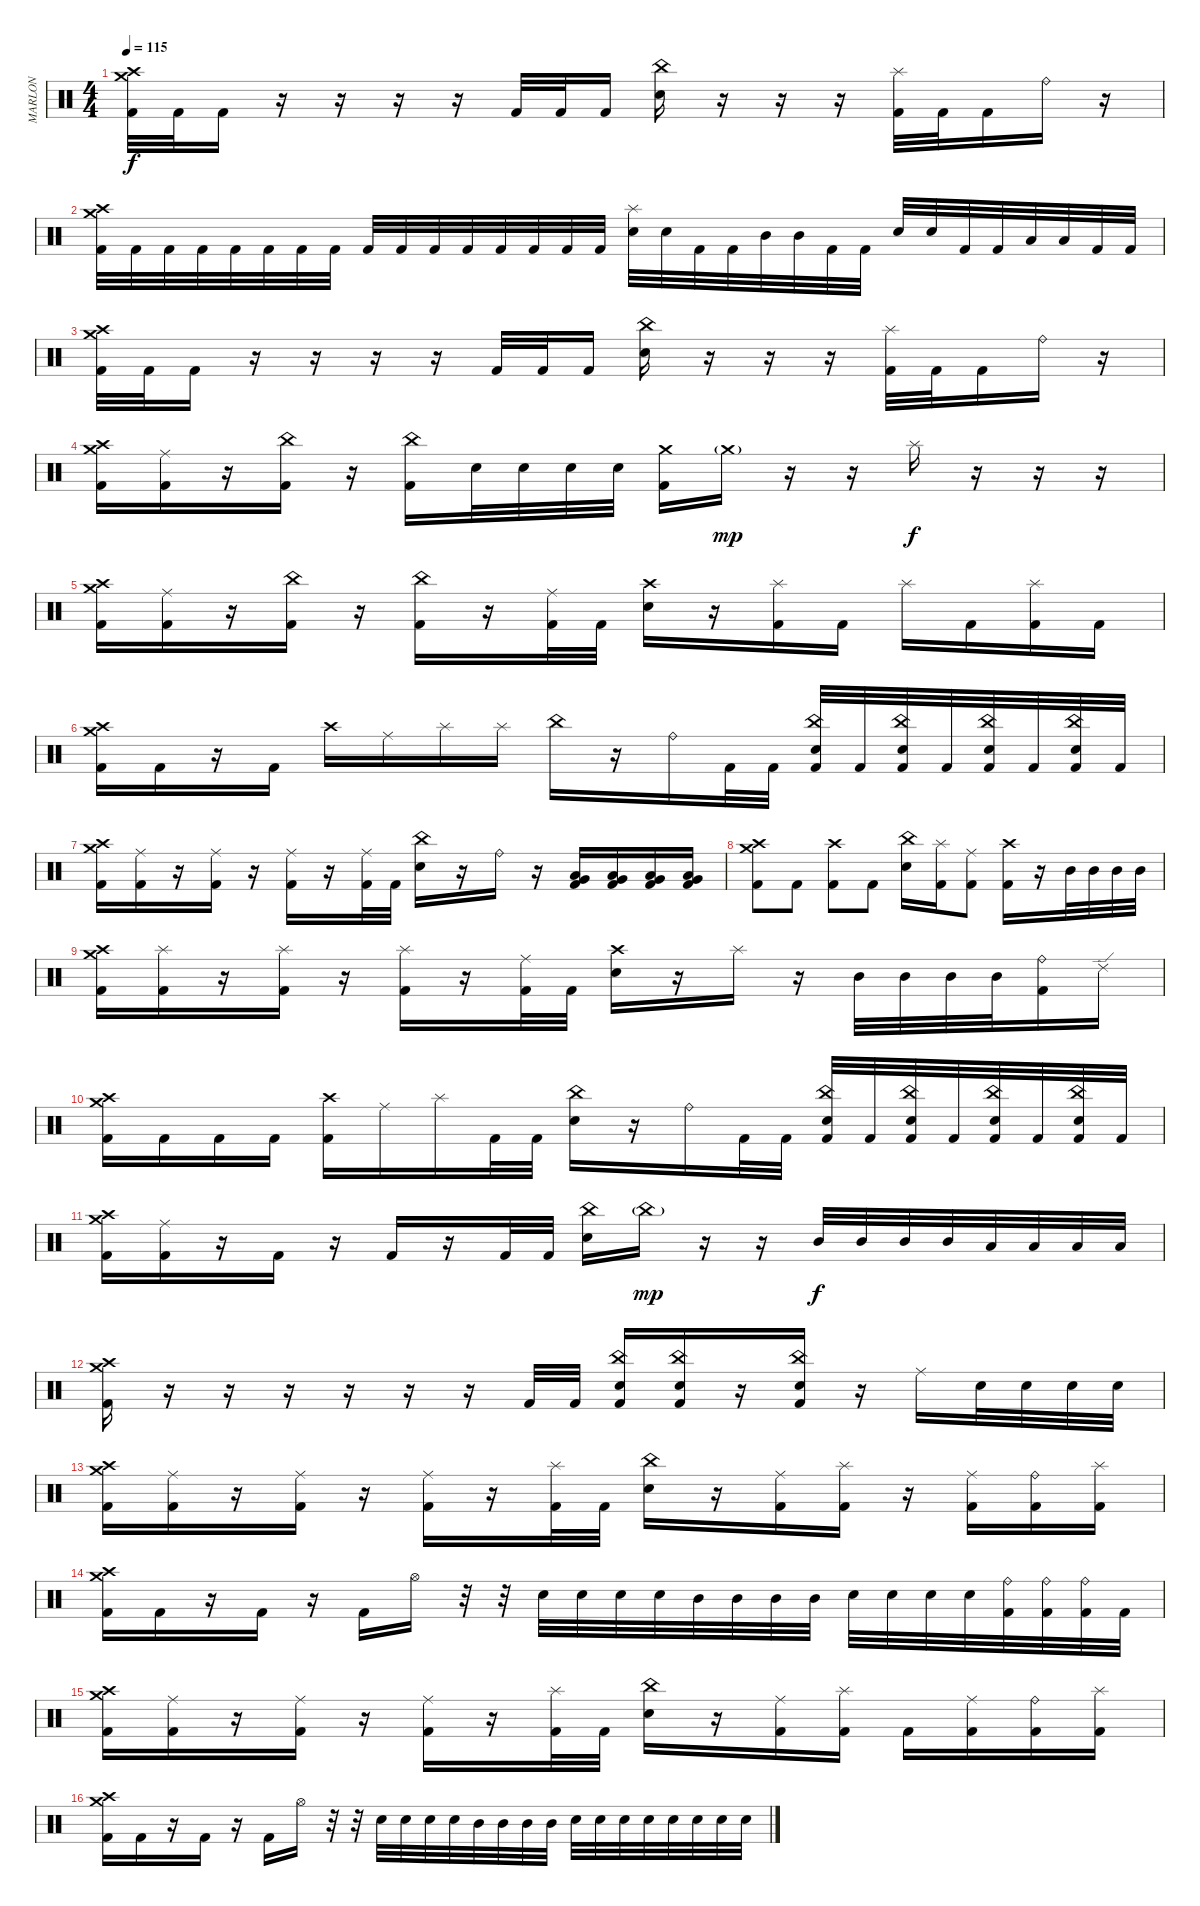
\track ("MARLON" "MARLON") {instrument percussion}
\staff {score}
\articulation defaults
\ts (4 4)
\tempo 115
\clef neutral
\ks c
("Crash high (hit)" "Crash medium (hit)" "Kick (hit) 2").32{dy f} "Kick (hit) 2".32 "Kick (hit) 2".16 r.16 r.16 r.16 r.16 "Kick (hit) 2".32 "Kick (hit) 2".32 "Kick (hit) 2".16 ("China (hit)" "Electric Snare (hit)").16 r.16 r.16 r.16 ("Splash (hit)" "Kick (hit) 2").32 "Kick (hit) 2".32 "Kick (hit) 2".16 "Ride (bell)".16 r.16 |
("Crash high (hit)" "Crash medium (hit)" "Kick (hit) 2").32 "Kick (hit) 2".32 "Kick (hit) 2".32 "Kick (hit) 2".32 "Kick (hit) 2".32 "Kick (hit) 2".32 "Kick (hit) 2".32 "Kick (hit) 2".32 "Kick (hit) 2".32 "Kick (hit) 2".32 "Kick (hit) 2".32 "Kick (hit) 2".32 "Kick (hit) 2".32 "Kick (hit) 2".32 "Kick (hit) 2".32 "Kick (hit) 2".32 ("Splash (hit)" "Electric Snare (hit)").32 "Electric Snare (hit)".32 "Kick (hit) 2".32 "Kick (hit) 2".32 "Mid Tom (hit)".32 "Mid Tom (hit)".32 "Kick (hit) 2".32 "Kick (hit) 2".32 "Electric Snare (hit)".32 "Electric Snare (hit)".32 "Kick (hit) 2".32 "Kick (hit) 2".32 "Low Tom (hit)".32 "Low Tom (hit)".32 "Kick (hit) 2".32 "Kick (hit) 2".32 |
("Crash high (hit)" "Crash medium (hit)" "Kick (hit) 2").32 "Kick (hit) 2".32 "Kick (hit) 2".16 r.16 r.16 r.16 r.16 "Kick (hit) 2".32 "Kick (hit) 2".32 "Kick (hit) 2".16 ("China (hit)" "Electric Snare (hit)").16 r.16 r.16 r.16 ("Splash (hit)" "Kick (hit) 2").32 "Kick (hit) 2".32 "Kick (hit) 2".16 "Ride (bell)".16 r.16 |
("Crash medium (hit)" "Crash high (hit)" "Kick (hit) 2").16 ("Ride (middle)" "Kick (hit) 2").16 r.16 ("China (hit)" "Kick (hit) 2").16 r.16 ("China (hit)" "Kick (hit) 2").16 "Electric Snare (hit)".32 "Electric Snare (hit)".32 "Electric Snare (hit)".32 "Electric Snare (hit)".32 ("Crash medium (hit)" "Kick (hit) 2").16 "Crash medium (hit)"{g}.16{dy mp} r.16 r.16 "Splash (hit)".16{dy f} r.16 r.16 r.16 |
("Crash medium (hit)" "Crash high (hit)" "Kick (hit) 2").16 ("Ride (middle)" "Kick (hit) 2").16 r.16 ("China (hit)" "Kick (hit) 2").16 r.16 ("China (hit)" "Kick (hit) 2").16 r.16 ("Ride (middle)" "Kick (hit) 2").32 "Kick (hit) 2".32 ("Crash high (hit)" "Electric Snare (hit)").16 r.16 ("Splash (hit)" "Kick (hit) 2").16 "Kick (hit) 2".16 "Splash (hit)".16 "Kick (hit) 2".16 ("Splash (hit)" "Kick (hit) 2").16 "Kick (hit) 2".16 |
("Crash high (hit)" "Crash medium (hit)" "Kick (hit) 2").16 "Kick (hit) 2".16 r.16 "Kick (hit) 2".16 "Crash high (hit)".16 "Ride (middle)".16 "Splash (hit)".16 "Splash (hit)".16 "China (hit)".16 r.16 "Ride (bell)".16 "Kick (hit) 2".32 "Kick (hit) 2".32 ("China (hit)" "Electric Snare (hit)" "Kick (hit) 2").32 "Kick (hit) 2".32 ("China (hit)" "Electric Snare (hit)" "Kick (hit) 2").32 "Kick (hit) 2".32 ("China (hit)" "Electric Snare (hit)" "Kick (hit) 2").32 "Kick (hit) 2".32 ("China (hit)" "Electric Snare (hit)" "Kick (hit) 2").32 "Kick (hit) 2".32 |
("Crash high (hit)" "Crash medium (hit)" "Kick (hit) 2").16 ("Ride (middle)" "Kick (hit) 2").16 r.16 ("Ride (middle)" "Kick (hit) 2").16 r.16 ("Ride (middle)" "Kick (hit) 2").16 r.16 ("Ride (middle)" "Kick (hit) 2").32 "Kick (hit) 2".32 ("China (hit)" "Electric Snare (hit)").16 r.16 "Ride (bell)".16 r.16 ("Low Tom (hit)" "Very Low Tom (hit)" "Kick (hit) 2").16 ("Low Tom (hit)" "Very Low Tom (hit)" "Kick (hit) 2").16 ("Low Tom (hit)" "Very Low Tom (hit)" "Kick (hit) 2").16 ("Low Tom (hit)" "Very Low Tom (hit)" "Kick (hit) 2").16 |
("Crash high (hit)" "Crash medium (hit)" "Kick (hit) 2").8 "Kick (hit) 2".8 ("Crash high (hit)" "Kick (hit) 2").8 "Kick (hit) 2".8 ("China (hit)" "Electric Snare (hit)").16 ("Splash (hit)" "Kick (hit) 2").16 ("Ride (middle)" "Kick (hit) 2").8 ("Crash high (hit)" "Kick (hit) 2").16 r.16 "Mid Tom (hit)".32 "Mid Tom (hit)".32 "Mid Tom (hit)".32 "Mid Tom (hit)".32 |
("Crash medium (hit)" "Crash high (hit)" "Kick (hit) 2").16 ("Splash (hit)" "Kick (hit) 2").16 r.16 ("Splash (hit)" "Kick (hit) 2").16 r.16 ("Splash (hit)" "Kick (hit) 2").16 r.16 ("Ride (middle)" "Kick (hit) 2").32 "Kick (hit) 2".32 ("Crash high (hit)" "Electric Snare (hit)").16 r.16 "Splash (hit)".16 r.16 "Mid Tom (hit)".32 "Mid Tom (hit)".32 "Mid Tom (hit)".32 "Mid Tom (hit)".32 ("Ride (bell)" "Kick (hit) 2").16 "Ride (edge) 2".16 |
("Crash high (hit)" "Crash medium (hit)" "Kick (hit) 2").16 "Kick (hit) 2".16 "Kick (hit) 2".16 "Kick (hit) 2".16 ("Crash high (hit)" "Kick (hit) 2").16 "Ride (middle)".16 "Splash (hit)".16 "Kick (hit) 2".32 "Kick (hit) 2".32 ("China (hit)" "Electric Snare (hit)").16 r.16 "Ride (bell)".16 "Kick (hit) 2".32 "Kick (hit) 2".32 ("China (hit)" "Electric Snare (hit)" "Kick (hit) 2").32 "Kick (hit) 2".32 ("China (hit)" "Electric Snare (hit)" "Kick (hit) 2").32 "Kick (hit) 2".32 ("China (hit)" "Electric Snare (hit)" "Kick (hit) 2").32 "Kick (hit) 2".32 ("China (hit)" "Electric Snare (hit)" "Kick (hit) 2").32 "Kick (hit) 2".32 |
("Crash high (hit)" "Crash medium (hit)" "Kick (hit) 2").16 ("Ride (middle)" "Kick (hit) 2").16 r.16 "Kick (hit) 2".16 r.16 "Kick (hit) 2".16 r.16 "Kick (hit) 2".32 "Kick (hit) 2".32 ("China (hit)" "Electric Snare (hit)").16 "China (hit)"{g}.16{dy mp} r.16 r.16 "Mid Tom (hit)".32{dy f} "Mid Tom (hit)".32 "Mid Tom (hit)".32 "Mid Tom (hit)".32 "Low Tom (hit)".32 "Low Tom (hit)".32 "Low Tom (hit)".32 "Low Tom (hit)".32 |
("Crash high (hit)" "Crash medium (hit)" "Kick (hit) 2").16 r.16 r.16 r.16 r.16 r.16 r.16 "Kick (hit) 2".32 "Kick (hit) 2".32 ("China (hit)" "Electric Snare (hit)" "Kick (hit) 2").16 ("China (hit)" "Electric Snare (hit)" "Kick (hit) 2").16 r.16 ("China (hit)" "Electric Snare (hit)" "Kick (hit) 2").16 r.16 "Ride (middle)".16 "Electric Snare (hit)".32 "Electric Snare (hit)".32 "Electric Snare (hit)".32 "Electric Snare (hit)".32 |
("Crash high (hit)" "Crash medium (hit)" "Kick (hit) 2").16 ("Ride (middle)" "Kick (hit) 2").16 r.16 ("Ride (middle)" "Kick (hit) 2").16 r.16 ("Ride (middle)" "Kick (hit) 2").16 r.16 ("Splash (hit)" "Kick (hit) 2").32 "Kick (hit) 2".32 ("China (hit)" "Electric Snare (hit)").16 r.16 ("Ride (middle)" "Kick (hit) 2").16 ("Splash (hit)" "Kick (hit) 2").16 r.16 ("Ride (middle)" "Kick (hit) 2").16 ("Ride (bell)" "Kick (hit) 2").16 ("Splash (hit)" "Kick (hit) 2").16 |
("Crash high (hit)" "Crash medium (hit)" "Kick (hit) 2").16 "Kick (hit) 2".16 r.16 "Kick (hit) 2".16 r.16 "Kick (hit) 2".16 "Hi-Hat (open)".16 r.32 r.32 "Electric Snare (hit)".32 "Electric Snare (hit)".32 "Electric Snare (hit)".32 "Electric Snare (hit)".32 "Mid Tom (hit)".32 "Mid Tom (hit)".32 "Mid Tom (hit)".32 "Mid Tom (hit)".32 "Electric Snare (hit)".32 "Electric Snare (hit)".32 "Electric Snare (hit)".32 "Electric Snare (hit)".32 ("Ride (bell)" "Kick (hit) 2").32 ("Ride (bell)" "Kick (hit) 2").32 ("Ride (bell)" "Kick (hit) 2").32 "Kick (hit) 2".32 |
("Crash high (hit)" "Crash medium (hit)" "Kick (hit) 2").16 ("Ride (middle)" "Kick (hit) 2").16 r.16 ("Ride (middle)" "Kick (hit) 2").16 r.16 ("Ride (middle)" "Kick (hit) 2").16 r.16 ("Splash (hit)" "Kick (hit) 2").32 "Kick (hit) 2".32 ("China (hit)" "Electric Snare (hit)").16 r.16 ("Ride (middle)" "Kick (hit) 2").16 ("Splash (hit)" "Kick (hit) 2").16 "Kick (hit) 2".16 ("Ride (middle)" "Kick (hit) 2").16 ("Ride (bell)" "Kick (hit) 2").16 ("Splash (hit)" "Kick (hit) 2").16 |
("Crash high (hit)" "Crash medium (hit)" "Kick (hit) 2").16 "Kick (hit) 2".16 r.16 "Kick (hit) 2".16 r.16 "Kick (hit) 2".16 "Hi-Hat (open)".16 r.32 r.32 "Electric Snare (hit)".32 "Electric Snare (hit)".32 "Electric Snare (hit)".32 "Electric Snare (hit)".32 "Mid Tom (hit)".32 "Mid Tom (hit)".32 "Mid Tom (hit)".32 "Mid Tom (hit)".32 "Electric Snare (hit)".32 "Electric Snare (hit)".32 "Electric Snare (hit)".32 "Electric Snare (hit)".32 "Electric Snare (hit)".32 "Electric Snare (hit)".32 "Electric Snare (hit)".32 "Electric Snare (hit)".32
